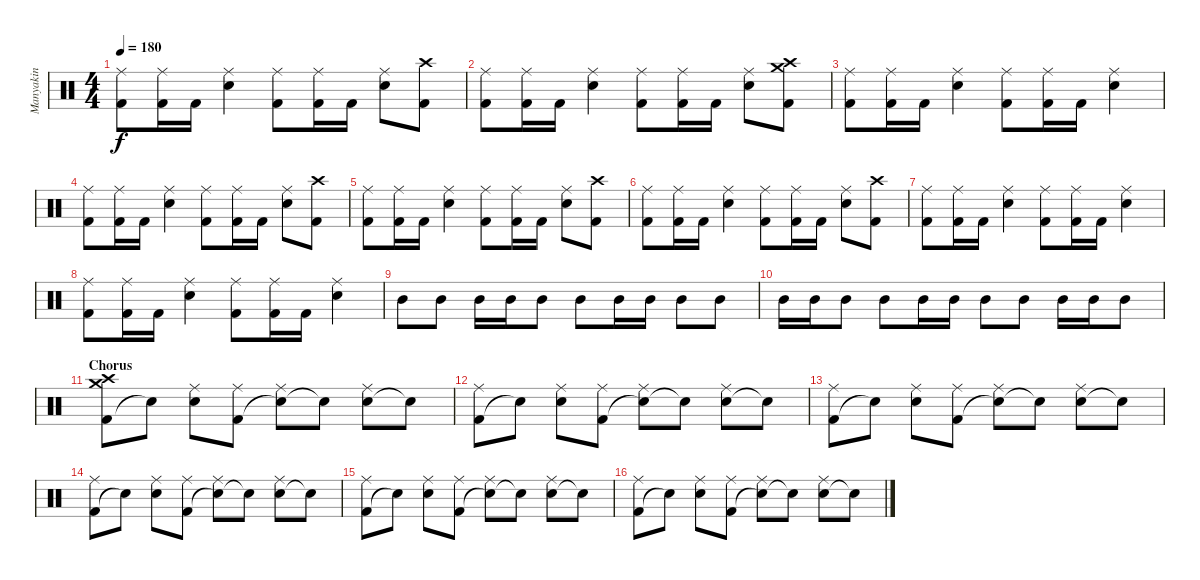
\track ("Manyakin" "Manyakin") {instrument percussion}
\staff {score}
\articulation defaults
\ts (4 4)
\tempo 180
\clef neutral
\ks c
("Kick (hit) 2" "Ride (middle)").8{dy f} ("Kick (hit) 2" "Ride (middle)").16 "Kick (hit) 2".16 ("Snare (hit) 2" "Ride (middle)").4 ("Kick (hit) 2" "Ride (middle)").8 ("Kick (hit) 2" "Ride (middle)").16 "Kick (hit) 2".16 ("Snare (hit) 2" "Ride (middle)").8 ("Kick (hit) 2" "Crash high (hit)").8 |
("Kick (hit) 2" "Ride (middle)").8 ("Kick (hit) 2" "Ride (middle)").16 "Kick (hit) 2".16 ("Snare (hit) 2" "Ride (middle)").4 ("Kick (hit) 2" "Ride (middle)").8 ("Kick (hit) 2" "Ride (middle)").16 "Kick (hit) 2".16 ("Snare (hit) 2" "Ride (middle)").8 ("Kick (hit) 2" "Crash high (hit)" "Crash medium (hit)").8 |
("Kick (hit) 2" "Ride (middle)").8 ("Kick (hit) 2" "Ride (middle)").16 "Kick (hit) 2".16 ("Snare (hit) 2" "Ride (middle)").4 ("Kick (hit) 2" "Ride (middle)").8 ("Kick (hit) 2" "Ride (middle)").16 "Kick (hit) 2".16 ("Snare (hit) 2" "Ride (middle)").4 |
("Kick (hit) 2" "Ride (middle)").8 ("Kick (hit) 2" "Ride (middle)").16 "Kick (hit) 2".16 ("Snare (hit) 2" "Ride (middle)").4 ("Kick (hit) 2" "Ride (middle)").8 ("Kick (hit) 2" "Ride (middle)").16 "Kick (hit) 2".16 ("Snare (hit) 2" "Ride (middle)").8 ("Kick (hit) 2" "Crash high (hit)").8 |
("Kick (hit) 2" "Ride (middle)").8 ("Kick (hit) 2" "Ride (middle)").16 "Kick (hit) 2".16 ("Snare (hit) 2" "Ride (middle)").4 ("Kick (hit) 2" "Ride (middle)").8 ("Kick (hit) 2" "Ride (middle)").16 "Kick (hit) 2".16 ("Snare (hit) 2" "Ride (middle)").8 ("Kick (hit) 2" "Crash high (hit)").8 |
("Kick (hit) 2" "Ride (middle)").8 ("Kick (hit) 2" "Ride (middle)").16 "Kick (hit) 2".16 ("Snare (hit) 2" "Ride (middle)").4 ("Kick (hit) 2" "Ride (middle)").8 ("Kick (hit) 2" "Ride (middle)").16 "Kick (hit) 2".16 ("Snare (hit) 2" "Ride (middle)").8 ("Kick (hit) 2" "Crash high (hit)").8 |
("Kick (hit) 2" "Ride (middle)").8 ("Kick (hit) 2" "Ride (middle)").16 "Kick (hit) 2".16 ("Snare (hit) 2" "Ride (middle)").4 ("Kick (hit) 2" "Ride (middle)").8 ("Kick (hit) 2" "Ride (middle)").16 "Kick (hit) 2".16 ("Snare (hit) 2" "Ride (middle)").4 |
("Kick (hit) 2" "Ride (middle)").8 ("Kick (hit) 2" "Ride (middle)").16 "Kick (hit) 2".16 ("Snare (hit) 2" "Ride (middle)").4 ("Kick (hit) 2" "Ride (middle)").8 ("Kick (hit) 2" "Ride (middle)").16 "Kick (hit) 2".16 ("Snare (hit) 2" "Ride (middle)").4 |
"Mid Tom (hit)".8 "Mid Tom (hit)".8 "Mid Tom (hit)".16 "Mid Tom (hit)".16 "Mid Tom (hit)".8 "Mid Tom (hit)".8 "Mid Tom (hit)".16 "Mid Tom (hit)".16 "Mid Tom (hit)".8 "Mid Tom (hit)".8 |
"Mid Tom (hit)".16 "Mid Tom (hit)".16 "Mid Tom (hit)".8 "Mid Tom (hit)".8 "Mid Tom (hit)".16 "Mid Tom (hit)".16 "Mid Tom (hit)".8 "Mid Tom (hit)".8 "Mid Tom (hit)".16 "Mid Tom (hit)".16 "Mid Tom (hit)".8 |
\section ("" "Chorus")
("Kick (hit) 2" "Crash high (hit)" "Crash medium (hit)").8 "Snare (hit)"{t}.8 ("Snare (hit) 2" "Ride (middle)").8 ("Kick (hit) 2" "Ride (middle)").8 ("Snare (hit)"{t} "Ride (middle)").8 "Snare (hit)"{t}.8 ("Snare (hit) 2" "Ride (middle)").8 "Snare (hit) 2"{t}.8 |
("Kick (hit) 2" "Ride (middle)").8 "Snare (hit)"{t}.8 ("Snare (hit) 2" "Ride (middle)").8 ("Kick (hit) 2" "Ride (middle)").8 ("Snare (hit)"{t} "Ride (middle)").8 "Snare (hit)"{t}.8 ("Snare (hit) 2" "Ride (middle)").8 "Snare (hit) 2"{t}.8 |
("Kick (hit) 2" "Ride (middle)").8 "Snare (hit)"{t}.8 ("Snare (hit) 2" "Ride (middle)").8 ("Kick (hit) 2" "Ride (middle)").8 ("Snare (hit)"{t} "Ride (middle)").8 "Snare (hit)"{t}.8 ("Snare (hit) 2" "Ride (middle)").8 "Snare (hit) 2"{t}.8 |
("Kick (hit) 2" "Ride (middle)").8 "Snare (hit)"{t}.8 ("Snare (hit) 2" "Ride (middle)").8 ("Kick (hit) 2" "Ride (middle)").8 ("Snare (hit)"{t} "Ride (middle)").8 "Snare (hit)"{t}.8 ("Snare (hit) 2" "Ride (middle)").8 "Snare (hit) 2"{t}.8 |
("Kick (hit) 2" "Ride (middle)").8 "Snare (hit)"{t}.8 ("Snare (hit) 2" "Ride (middle)").8 ("Kick (hit) 2" "Ride (middle)").8 ("Snare (hit)"{t} "Ride (middle)").8 "Snare (hit)"{t}.8 ("Snare (hit) 2" "Ride (middle)").8 "Snare (hit) 2"{t}.8 |
("Kick (hit) 2" "Ride (middle)").8 "Snare (hit)"{t}.8 ("Snare (hit) 2" "Ride (middle)").8 ("Kick (hit) 2" "Ride (middle)").8 ("Snare (hit)"{t} "Ride (middle)").8 "Snare (hit)"{t}.8 ("Snare (hit) 2" "Ride (middle)").8 "Snare (hit) 2"{t}.8
